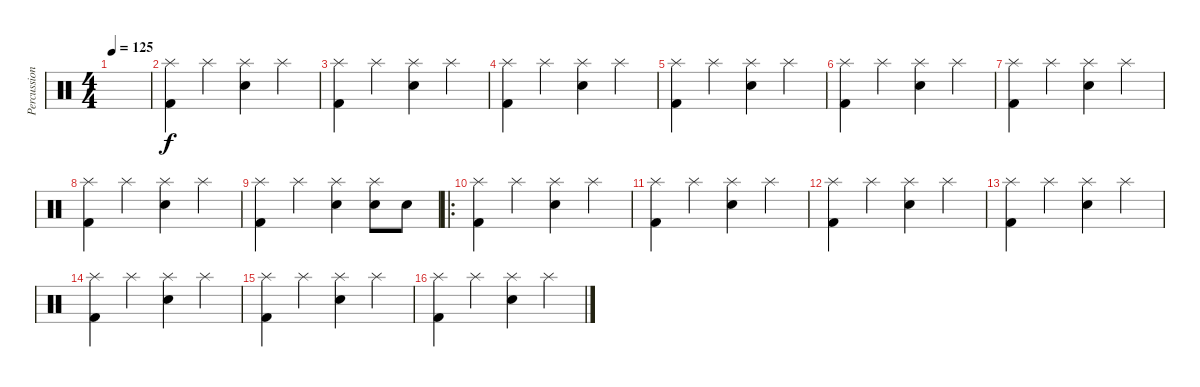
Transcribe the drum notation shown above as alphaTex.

\track ("Percussions" "Percussion") {instrument percussion}
\staff {score}
\articulation defaults
\ts (4 4)
\tempo 125
\clef neutral
\ks c
|
("Splash (hit)" "Kick (hit) 2").4 "Splash (hit)".4 ("Splash (hit)" "Electric Snare (hit)").4 "Splash (hit)".4 |
("Splash (hit)" "Kick (hit) 2").4 "Splash (hit)".4 ("Splash (hit)" "Electric Snare (hit)").4 "Splash (hit)".4 |
("Splash (hit)" "Kick (hit) 2").4 "Splash (hit)".4 ("Splash (hit)" "Electric Snare (hit)").4 "Splash (hit)".4 |
("Splash (hit)" "Kick (hit) 2").4 "Splash (hit)".4 ("Splash (hit)" "Electric Snare (hit)").4 "Splash (hit)".4 |
("Splash (hit)" "Kick (hit) 2").4 "Splash (hit)".4 ("Splash (hit)" "Electric Snare (hit)").4 "Splash (hit)".4 |
("Splash (hit)" "Kick (hit) 2").4 "Splash (hit)".4 ("Splash (hit)" "Electric Snare (hit)").4 "Splash (hit)".4 |
("Splash (hit)" "Kick (hit) 2").4 "Splash (hit)".4 ("Splash (hit)" "Electric Snare (hit)").4 "Splash (hit)".4 |
("Splash (hit)" "Kick (hit) 2").4 "Splash (hit)".4 ("Splash (hit)" "Electric Snare (hit)").4 ("Splash (hit)" "Electric Snare (hit)").8 "Electric Snare (hit)".8 |
\ro
("Splash (hit)" "Kick (hit) 2").4 "Splash (hit)".4 ("Splash (hit)" "Electric Snare (hit)").4 "Splash (hit)".4 |
("Splash (hit)" "Kick (hit) 2").4 "Splash (hit)".4 ("Splash (hit)" "Electric Snare (hit)").4 "Splash (hit)".4 |
("Splash (hit)" "Kick (hit) 2").4 "Splash (hit)".4 ("Splash (hit)" "Electric Snare (hit)").4 "Splash (hit)".4 |
("Splash (hit)" "Kick (hit) 2").4 "Splash (hit)".4 ("Splash (hit)" "Electric Snare (hit)").4 "Splash (hit)".4 |
("Splash (hit)" "Kick (hit) 2").4 "Splash (hit)".4 ("Splash (hit)" "Electric Snare (hit)").4 "Splash (hit)".4 |
("Splash (hit)" "Kick (hit) 2").4 "Splash (hit)".4 ("Splash (hit)" "Electric Snare (hit)").4 "Splash (hit)".4 |
("Splash (hit)" "Kick (hit) 2").4 "Splash (hit)".4 ("Splash (hit)" "Electric Snare (hit)").4 "Splash (hit)".4
